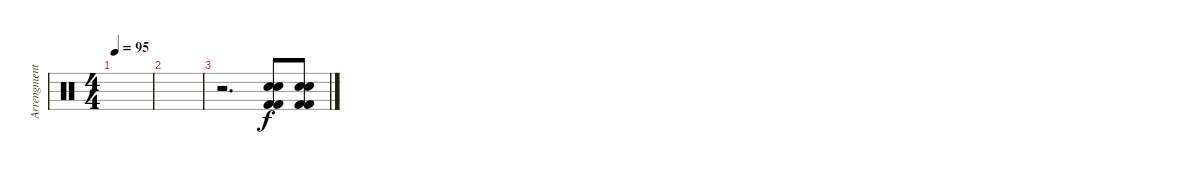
\track ("Arrengments" "Arrengment") {instrument percussion}
\staff {score}
\articulation defaults
\ts (4 4)
\tempo 95
\clef neutral
\ks c
|
|
r.2{d} ("Snare (hit) 2" "Electric Snare (hit)" "Kick (hit) 2" "Kick (hit) 2").8 ("Snare (hit) 2" "Electric Snare (hit)" "Kick (hit) 2" "Kick (hit) 2").8
